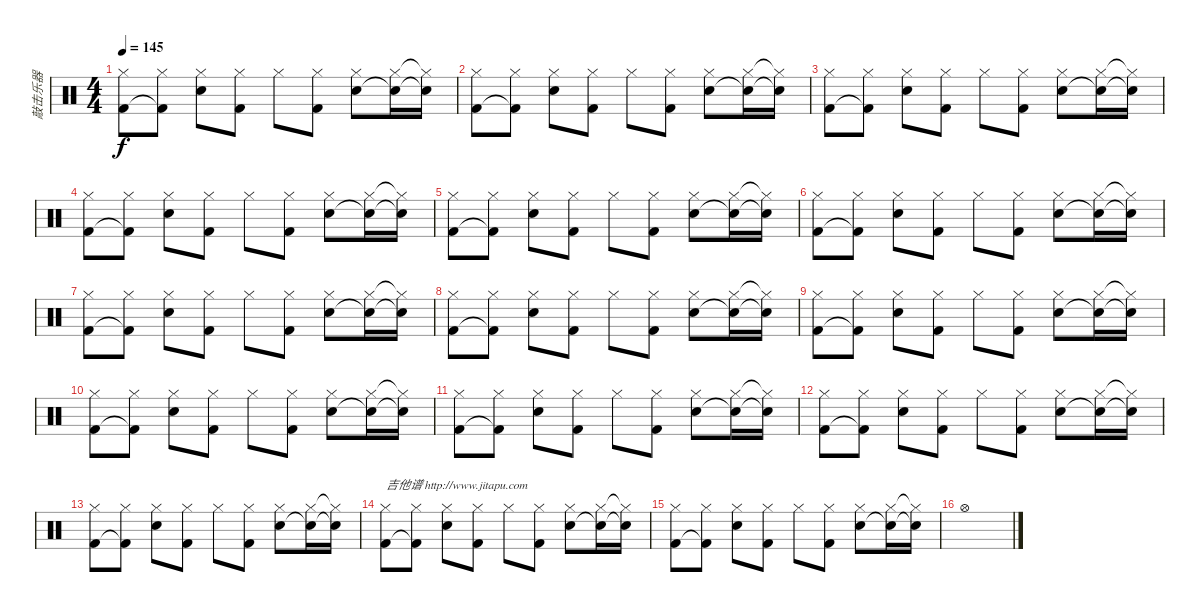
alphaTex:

\track ("敲击乐器" "敲击乐器") {instrument percussion}
\staff {score}
\articulation defaults
\ts (4 4)
\tempo 145
\clef neutral
\ks c
("Hi-Hat (closed)" "Kick (hit) 2").8{dy f} ("Hi-Hat (closed)" "Kick (hit) 2"{t}).8 ("Hi-Hat (closed)" "Snare (hit) 2").8 ("Hi-Hat (closed)" "Kick (hit) 2").8 "Hi-Hat (closed)".8 ("Hi-Hat (closed)" "Kick (hit) 2").8 ("Hi-Hat (closed)" "Snare (hit) 2").8 ("Hi-Hat (closed)" "Snare (hit) 2"{t}).16 ("Hi-Hat (closed)"{t} "Snare (hit) 2"{t}).16 |
("Hi-Hat (closed)" "Kick (hit) 2").8 ("Hi-Hat (closed)" "Kick (hit) 2"{t}).8 ("Hi-Hat (closed)" "Snare (hit) 2").8 ("Hi-Hat (closed)" "Kick (hit) 2").8 "Hi-Hat (closed)".8 ("Hi-Hat (closed)" "Kick (hit) 2").8 ("Hi-Hat (closed)" "Snare (hit) 2").8 ("Hi-Hat (closed)" "Snare (hit) 2"{t}).16 ("Hi-Hat (closed)"{t} "Snare (hit) 2"{t}).16 |
("Hi-Hat (closed)" "Kick (hit) 2").8 ("Hi-Hat (closed)" "Kick (hit) 2"{t}).8 ("Hi-Hat (closed)" "Snare (hit) 2").8 ("Hi-Hat (closed)" "Kick (hit) 2").8 "Hi-Hat (closed)".8 ("Hi-Hat (closed)" "Kick (hit) 2").8 ("Hi-Hat (closed)" "Snare (hit) 2").8 ("Hi-Hat (closed)" "Snare (hit) 2"{t}).16 ("Hi-Hat (closed)"{t} "Snare (hit) 2"{t}).16 |
("Hi-Hat (closed)" "Kick (hit) 2").8 ("Hi-Hat (closed)" "Kick (hit) 2"{t}).8 ("Hi-Hat (closed)" "Snare (hit) 2").8 ("Hi-Hat (closed)" "Kick (hit) 2").8 "Hi-Hat (closed)".8 ("Hi-Hat (closed)" "Kick (hit) 2").8 ("Hi-Hat (closed)" "Snare (hit) 2").8 ("Hi-Hat (closed)" "Snare (hit) 2"{t}).16 ("Hi-Hat (closed)"{t} "Snare (hit) 2"{t}).16 |
("Hi-Hat (closed)" "Kick (hit) 2").8 ("Hi-Hat (closed)" "Kick (hit) 2"{t}).8 ("Hi-Hat (closed)" "Snare (hit) 2").8 ("Hi-Hat (closed)" "Kick (hit) 2").8 "Hi-Hat (closed)".8 ("Hi-Hat (closed)" "Kick (hit) 2").8 ("Hi-Hat (closed)" "Snare (hit) 2").8 ("Hi-Hat (closed)" "Snare (hit) 2"{t}).16 ("Hi-Hat (closed)"{t} "Snare (hit) 2"{t}).16 |
("Hi-Hat (closed)" "Kick (hit) 2").8 ("Hi-Hat (closed)" "Kick (hit) 2"{t}).8 ("Hi-Hat (closed)" "Snare (hit) 2").8 ("Hi-Hat (closed)" "Kick (hit) 2").8 "Hi-Hat (closed)".8 ("Hi-Hat (closed)" "Kick (hit) 2").8 ("Hi-Hat (closed)" "Snare (hit) 2").8 ("Hi-Hat (closed)" "Snare (hit) 2"{t}).16 ("Hi-Hat (closed)"{t} "Snare (hit) 2"{t}).16 |
("Hi-Hat (closed)" "Kick (hit) 2").8 ("Hi-Hat (closed)" "Kick (hit) 2"{t}).8 ("Hi-Hat (closed)" "Snare (hit) 2").8 ("Hi-Hat (closed)" "Kick (hit) 2").8 "Hi-Hat (closed)".8 ("Hi-Hat (closed)" "Kick (hit) 2").8 ("Hi-Hat (closed)" "Snare (hit) 2").8 ("Hi-Hat (closed)" "Snare (hit) 2"{t}).16 ("Hi-Hat (closed)"{t} "Snare (hit) 2"{t}).16 |
("Hi-Hat (closed)" "Kick (hit) 2").8 ("Hi-Hat (closed)" "Kick (hit) 2"{t}).8 ("Hi-Hat (closed)" "Snare (hit) 2").8 ("Hi-Hat (closed)" "Kick (hit) 2").8 "Hi-Hat (closed)".8 ("Hi-Hat (closed)" "Kick (hit) 2").8 ("Hi-Hat (closed)" "Snare (hit) 2").8 ("Hi-Hat (closed)" "Snare (hit) 2"{t}).16 ("Hi-Hat (closed)"{t} "Snare (hit) 2"{t}).16 |
("Hi-Hat (closed)" "Kick (hit) 2").8 ("Hi-Hat (closed)" "Kick (hit) 2"{t}).8 ("Hi-Hat (closed)" "Snare (hit) 2").8 ("Hi-Hat (closed)" "Kick (hit) 2").8 "Hi-Hat (closed)".8 ("Hi-Hat (closed)" "Kick (hit) 2").8 ("Hi-Hat (closed)" "Snare (hit) 2").8 ("Hi-Hat (closed)" "Snare (hit) 2"{t}).16 ("Hi-Hat (closed)"{t} "Snare (hit) 2"{t}).16 |
("Hi-Hat (closed)" "Kick (hit) 2").8 ("Hi-Hat (closed)" "Kick (hit) 2"{t}).8 ("Hi-Hat (closed)" "Snare (hit) 2").8 ("Hi-Hat (closed)" "Kick (hit) 2").8 "Hi-Hat (closed)".8 ("Hi-Hat (closed)" "Kick (hit) 2").8 ("Hi-Hat (closed)" "Snare (hit) 2").8 ("Hi-Hat (closed)" "Snare (hit) 2"{t}).16 ("Hi-Hat (closed)"{t} "Snare (hit) 2"{t}).16 |
("Hi-Hat (closed)" "Kick (hit) 2").8 ("Hi-Hat (closed)" "Kick (hit) 2"{t}).8 ("Hi-Hat (closed)" "Snare (hit) 2").8 ("Hi-Hat (closed)" "Kick (hit) 2").8 "Hi-Hat (closed)".8 ("Hi-Hat (closed)" "Kick (hit) 2").8 ("Hi-Hat (closed)" "Snare (hit) 2").8 ("Hi-Hat (closed)" "Snare (hit) 2"{t}).16 ("Hi-Hat (closed)"{t} "Snare (hit) 2"{t}).16 |
("Hi-Hat (closed)" "Kick (hit) 2").8 ("Hi-Hat (closed)" "Kick (hit) 2"{t}).8 ("Hi-Hat (closed)" "Snare (hit) 2").8 ("Hi-Hat (closed)" "Kick (hit) 2").8 "Hi-Hat (closed)".8 ("Hi-Hat (closed)" "Kick (hit) 2").8 ("Hi-Hat (closed)" "Snare (hit) 2").8 ("Hi-Hat (closed)" "Snare (hit) 2"{t}).16 ("Hi-Hat (closed)"{t} "Snare (hit) 2"{t}).16 |
("Hi-Hat (closed)" "Kick (hit) 2").8 ("Hi-Hat (closed)" "Kick (hit) 2"{t}).8 ("Hi-Hat (closed)" "Snare (hit) 2").8 ("Hi-Hat (closed)" "Kick (hit) 2").8 "Hi-Hat (closed)".8 ("Hi-Hat (closed)" "Kick (hit) 2").8 ("Hi-Hat (closed)" "Snare (hit) 2").8 ("Hi-Hat (closed)" "Snare (hit) 2"{t}).16 ("Hi-Hat (closed)"{t} "Snare (hit) 2"{t}).16 |
("Hi-Hat (closed)" "Kick (hit) 2").8{txt "吉他谱 http://www.jitapu.com"} ("Hi-Hat (closed)" "Kick (hit) 2"{t}).8 ("Hi-Hat (closed)" "Snare (hit) 2").8 ("Hi-Hat (closed)" "Kick (hit) 2").8 "Hi-Hat (closed)".8 ("Hi-Hat (closed)" "Kick (hit) 2").8 ("Hi-Hat (closed)" "Snare (hit) 2").8 ("Hi-Hat (closed)" "Snare (hit) 2"{t}).16 ("Hi-Hat (closed)"{t} "Snare (hit) 2"{t}).16 |
("Hi-Hat (closed)" "Kick (hit) 2").8 ("Hi-Hat (closed)" "Kick (hit) 2"{t}).8 ("Hi-Hat (closed)" "Snare (hit) 2").8 ("Hi-Hat (closed)" "Kick (hit) 2").8 "Hi-Hat (closed)".8 ("Hi-Hat (closed)" "Kick (hit) 2").8 ("Hi-Hat (closed)" "Snare (hit) 2").8 ("Hi-Hat (closed)" "Snare (hit) 2"{t}).16 ("Hi-Hat (closed)"{t} "Snare (hit) 2"{t}).16 |
"Hi-Hat (open)".1
